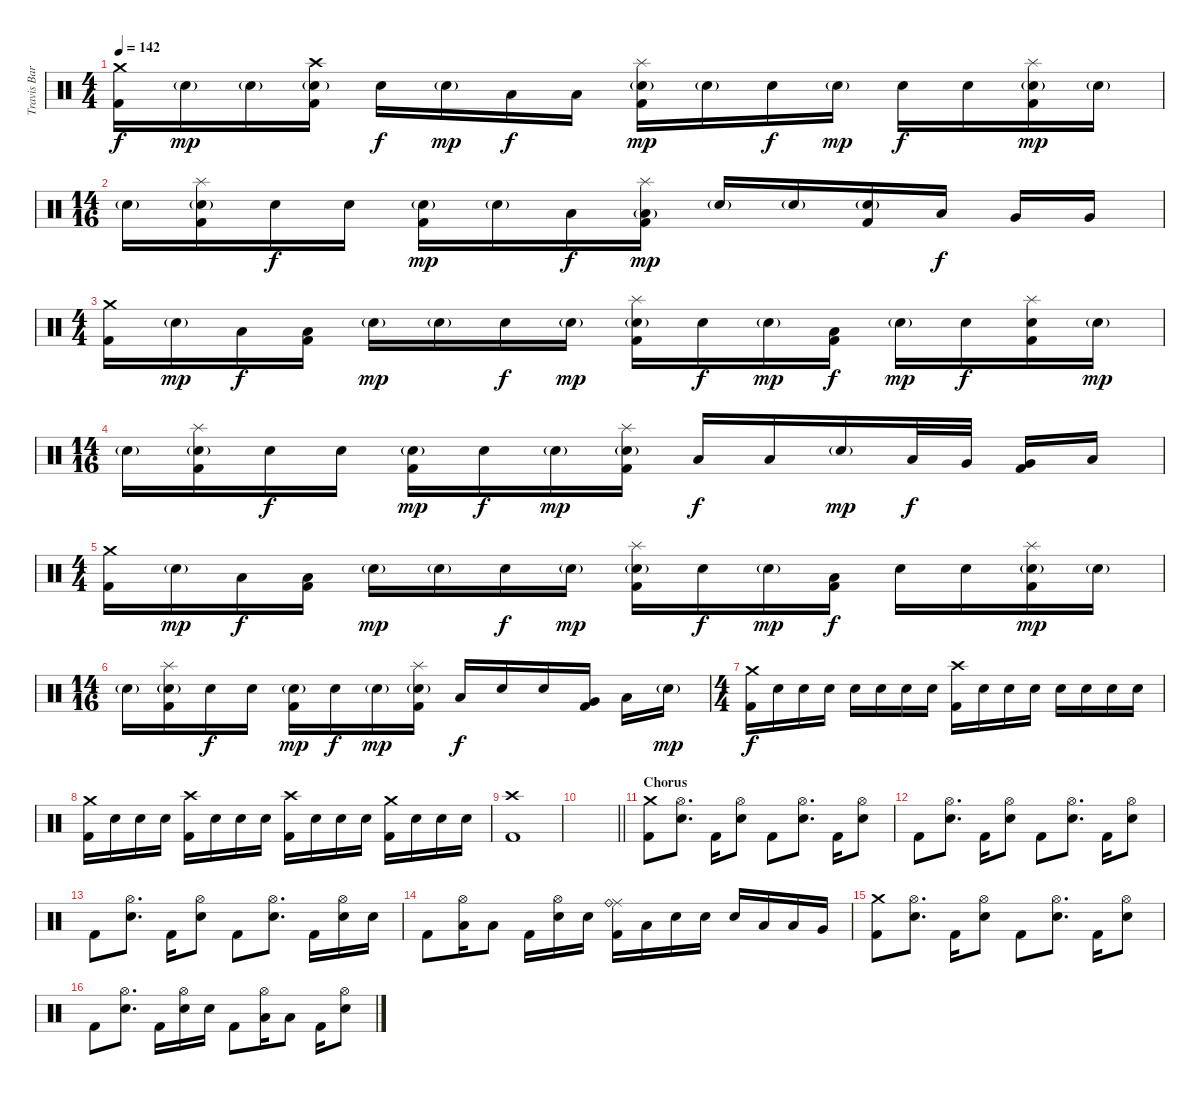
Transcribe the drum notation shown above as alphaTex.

\track ("Travis Barker - Drums" "Travis Bar") {instrument percussion}
\staff {score}
\articulation defaults
\ts (4 4)
\tempo 142
\clef neutral
\ks c
("Crash medium (hit)" "Kick (hit) 2").16{dy f} "Electric Snare (hit)"{g}.16{dy mp} "Electric Snare (hit)"{g}.16 ("Crash high (hit)" "Electric Snare (hit)"{g} "Kick (hit) 2").16 "Electric Snare (hit)".16{dy f} "Electric Snare (hit)"{g}.16{dy mp} "Low Tom (hit)".16{dy f} "Low Tom (hit)".16 ("Splash (hit)" "Electric Snare (hit)"{g} "Kick (hit) 2").16{dy mp} "Electric Snare (hit)"{g}.16 "Electric Snare (hit)".16{dy f} "Electric Snare (hit)"{g}.16{dy mp} "Electric Snare (hit)".16{dy f} "Electric Snare (hit)".16 ("Splash (hit)" "Electric Snare (hit)"{g} "Kick (hit) 2").16{dy mp} "Electric Snare (hit)"{g}.16 |
\ts (14 16)
"Electric Snare (hit)"{g}.16 ("Splash (hit)" "Electric Snare (hit)"{g} "Kick (hit) 2").16 "Electric Snare (hit)".16{dy f} "Electric Snare (hit)".16 ("Electric Snare (hit)"{g} "Kick (hit) 2").16{dy mp} "Electric Snare (hit)"{g}.16 "Low Tom (hit)".16{dy f} ("Splash (hit)" "Low Tom (hit)"{g} "Kick (hit) 2").16{dy mp} "Electric Snare (hit)"{g}.16 "Electric Snare (hit)"{g}.16 ("Electric Snare (hit)"{g} "Kick (hit) 2").16 "Low Tom (hit)".16{dy f} "Very Low Tom (hit)".16 "Very Low Tom (hit)".16 |
\ts (4 4)
("Crash medium (hit)" "Kick (hit) 2").16 "Electric Snare (hit)"{g}.16{dy mp} "Low Tom (hit)".16{dy f} ("Low Tom (hit)" "Kick (hit) 2").16 "Electric Snare (hit)"{g}.16{dy mp} "Electric Snare (hit)"{g}.16 "Electric Snare (hit)".16{dy f} "Electric Snare (hit)"{g}.16{dy mp} ("Splash (hit)" "Electric Snare (hit)"{g} "Kick (hit) 2").16 "Electric Snare (hit)".16{dy f} "Electric Snare (hit)"{g}.16{dy mp} ("Low Tom (hit)" "Kick (hit) 2").16{dy f} "Electric Snare (hit)"{g}.16{dy mp} "Electric Snare (hit)".16{dy f} ("Splash (hit)" "Electric Snare (hit)" "Kick (hit) 2").16 "Electric Snare (hit)"{g}.16{dy mp} |
\ts (14 16)
"Electric Snare (hit)"{g}.16 ("Splash (hit)" "Electric Snare (hit)"{g} "Kick (hit) 2").16 "Electric Snare (hit)".16{dy f} "Electric Snare (hit)".16 ("Electric Snare (hit)"{g} "Kick (hit) 2").16{dy mp} "Electric Snare (hit)".16{dy f} "Electric Snare (hit)"{g}.16{dy mp} ("Splash (hit)" "Electric Snare (hit)"{g} "Kick (hit) 2").16 "Low Tom (hit)".16{dy f} "Low Tom (hit)".16 "Electric Snare (hit)"{g}.16{dy mp} "Low Tom (hit)".32{dy f} "Very Low Tom (hit)".32 ("Very Low Tom (hit)" "Kick (hit) 2").16 "Low Floor Tom (hit)".16 |
\ts (4 4)
("Crash medium (hit)" "Kick (hit) 2").16 "Electric Snare (hit)"{g}.16{dy mp} "Low Tom (hit)".16{dy f} ("Low Tom (hit)" "Kick (hit) 2").16 "Electric Snare (hit)"{g}.16{dy mp} "Electric Snare (hit)"{g}.16 "Electric Snare (hit)".16{dy f} "Electric Snare (hit)"{g}.16{dy mp} ("Splash (hit)" "Electric Snare (hit)"{g} "Kick (hit) 2").16 "Electric Snare (hit)".16{dy f} "Electric Snare (hit)"{g}.16{dy mp} ("Low Tom (hit)" "Kick (hit) 2").16{dy f} "Electric Snare (hit)".16 "Electric Snare (hit)".16 ("Splash (hit)" "Electric Snare (hit)"{g} "Kick (hit) 2").16{dy mp} "Electric Snare (hit)"{g}.16 |
\ts (14 16)
"Electric Snare (hit)"{g}.16 ("Splash (hit)" "Electric Snare (hit)"{g} "Kick (hit) 2").16 "Electric Snare (hit)".16{dy f} "Electric Snare (hit)".16 ("Electric Snare (hit)"{g} "Kick (hit) 2").16{dy mp} "Electric Snare (hit)".16{dy f} "Electric Snare (hit)"{g}.16{dy mp} ("Splash (hit)" "Electric Snare (hit)"{g} "Kick (hit) 2").16 "Low Tom (hit)".16{dy f} "Electric Snare (hit)".16 "Electric Snare (hit)".16 ("Very Low Tom (hit)" "Kick (hit) 2").16 "Low Floor Tom (hit)".16 "Electric Snare (hit)"{g}.16{dy mp} |
\ts (4 4)
("Crash medium (hit)" "Kick (hit) 2").16{dy f} "Electric Snare (hit)".16{volume 9} "Electric Snare (hit)".16{volume 12} "Electric Snare (hit)".16 "Electric Snare (hit)".16 "Electric Snare (hit)".16 "Electric Snare (hit)".16 "Electric Snare (hit)".16 ("Crash high (hit)" "Kick (hit) 2").16 "Electric Snare (hit)".16{volume 10} "Electric Snare (hit)".16{volume 12} "Electric Snare (hit)".16 "Electric Snare (hit)".16 "Electric Snare (hit)".16 "Electric Snare (hit)".16 "Electric Snare (hit)".16 |
("Crash medium (hit)" "Kick (hit) 2").16 "Electric Snare (hit)".16 "Electric Snare (hit)".16 "Electric Snare (hit)".16 ("Crash high (hit)" "Kick (hit) 2").16 "Electric Snare (hit)".16 "Electric Snare (hit)".16 "Electric Snare (hit)".16 ("Crash high (hit)" "Kick (hit) 2").16 "Electric Snare (hit)".16 "Electric Snare (hit)".16 "Electric Snare (hit)".16 ("Crash medium (hit)" "Kick (hit) 2").16 "Electric Snare (hit)".16 "Electric Snare (hit)".16 "Electric Snare (hit)".16 |
("Crash high (hit)" "Kick (hit) 2").1 |
\barLineRight lightlight
|
\section ("" "Chorus")
("Crash medium (hit)" "Kick (hit) 2").8 ("Hi-Hat (open)" "Electric Snare (hit)").8{d} "Kick (hit) 2".16 ("Hi-Hat (open)" "Electric Snare (hit)").8 "Kick (hit) 2".8 ("Hi-Hat (open)" "Electric Snare (hit)").8{d} "Kick (hit) 2".16 ("Hi-Hat (open)" "Electric Snare (hit)").8 |
"Kick (hit) 2".8 ("Hi-Hat (open)" "Electric Snare (hit)").8{d} "Kick (hit) 2".16 ("Hi-Hat (open)" "Electric Snare (hit)").8 "Kick (hit) 2".8 ("Hi-Hat (open)" "Electric Snare (hit)").8{d} "Kick (hit) 2".16 ("Hi-Hat (open)" "Electric Snare (hit)").8 |
"Kick (hit) 2".8 ("Hi-Hat (open)" "Electric Snare (hit)").8{d} "Kick (hit) 2".16 ("Hi-Hat (open)" "Electric Snare (hit)").8 "Kick (hit) 2".8 ("Hi-Hat (open)" "Electric Snare (hit)").8{d} "Kick (hit) 2".16 ("Hi-Hat (open)" "Electric Snare (hit)").16 "Electric Snare (hit)".16 |
"Kick (hit) 2".8 ("Hi-Hat (open)" "Low Tom (hit)").16 "Low Tom (hit)".8 "Kick (hit) 2".16 ("Hi-Hat (open)" "Electric Snare (hit)").16 "Electric Snare (hit)".16 ("Ride (middle)" "Ride (bell)" "Kick (hit) 2").16 "Low Tom (hit)".16 "Electric Snare (hit)".16 "Electric Snare (hit)".16 "Electric Snare (hit)".16 "Low Tom (hit)".16 "Low Tom (hit)".16 "Very Low Tom (hit)".16 |
("Crash medium (hit)" "Kick (hit) 2").8 ("Hi-Hat (open)" "Electric Snare (hit)").8{d} "Kick (hit) 2".16 ("Hi-Hat (open)" "Electric Snare (hit)").8 "Kick (hit) 2".8 ("Hi-Hat (open)" "Electric Snare (hit)").8{d} "Kick (hit) 2".16 ("Hi-Hat (open)" "Electric Snare (hit)").8 |
"Kick (hit) 2".8 ("Hi-Hat (open)" "Electric Snare (hit)").8{d} "Kick (hit) 2".16 ("Hi-Hat (open)" "Electric Snare (hit)").16 "Electric Snare (hit)".16 "Kick (hit) 2".8 ("Hi-Hat (open)" "Low Tom (hit)").16 "Low Tom (hit)".8 "Kick (hit) 2".16 ("Hi-Hat (open)" "Electric Snare (hit)").8
